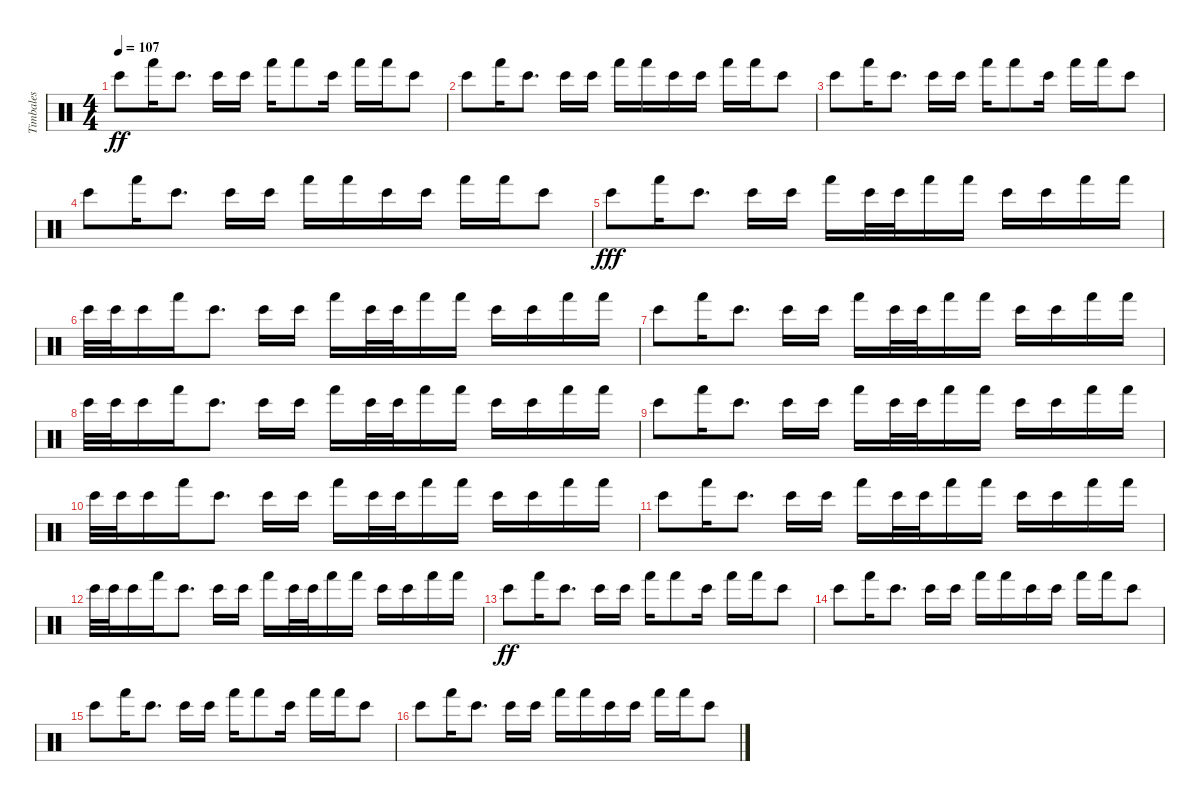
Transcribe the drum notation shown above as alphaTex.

\track ("Timbales" "Timbales") {instrument percussion}
\staff {score}
\articulation defaults
\ts (4 4)
\tempo 107
\clef neutral
\ks c "Bongo High (hit)".8{dy ff} "Hand (hit)".16 "Bongo High (hit)".8{d} "Bongo High (hit)".16 "Bongo High (hit)".16 "Hand (hit)".16 "Hand (hit)".8 "Bongo High (hit)".16 "Hand (hit)".16 "Hand (hit)".16 "Bongo High (hit)".8
|
"Bongo High (hit)".8 "Hand (hit)".16 "Bongo High (hit)".8{d} "Bongo High (hit)".16 "Bongo High (hit)".16 "Hand (hit)".16 "Hand (hit)".16 "Bongo High (hit)".16 "Bongo High (hit)".16 "Hand (hit)".16 "Hand (hit)".16 "Bongo High (hit)".8 |
"Bongo High (hit)".8 "Hand (hit)".16 "Bongo High (hit)".8{d} "Bongo High (hit)".16 "Bongo High (hit)".16 "Hand (hit)".16 "Hand (hit)".8 "Bongo High (hit)".16 "Hand (hit)".16 "Hand (hit)".16 "Bongo High (hit)".8 |
"Bongo High (hit)".8 "Hand (hit)".16 "Bongo High (hit)".8{d} "Bongo High (hit)".16 "Bongo High (hit)".16 "Hand (hit)".16 "Hand (hit)".16 "Bongo High (hit)".16 "Bongo High (hit)".16 "Hand (hit)".16 "Hand (hit)".16 "Bongo High (hit)".8 |
"Bongo High (hit)".8{dy fff} "Hand (hit)".16 "Bongo High (hit)".8{d} "Bongo High (hit)".16 "Bongo High (hit)".16 "Hand (hit)".16 "Bongo High (hit)".32 "Bongo High (hit)".32 "Hand (hit)".16 "Hand (hit)".16 "Bongo High (hit)".16 "Bongo High (hit)".16 "Hand (hit)".16 "Hand (hit)".16 |
"Bongo High (hit)".32 "Bongo High (hit)".32 "Bongo High (hit)".16 "Hand (hit)".16 "Bongo High (hit)".8{d} "Bongo High (hit)".16 "Bongo High (hit)".16 "Hand (hit)".16 "Bongo High (hit)".32 "Bongo High (hit)".32 "Hand (hit)".16 "Hand (hit)".16 "Bongo High (hit)".16 "Bongo High (hit)".16 "Hand (hit)".16 "Hand (hit)".16 |
"Bongo High (hit)".8 "Hand (hit)".16 "Bongo High (hit)".8{d} "Bongo High (hit)".16 "Bongo High (hit)".16 "Hand (hit)".16 "Bongo High (hit)".32 "Bongo High (hit)".32 "Hand (hit)".16 "Hand (hit)".16 "Bongo High (hit)".16 "Bongo High (hit)".16 "Hand (hit)".16 "Hand (hit)".16 |
"Bongo High (hit)".32 "Bongo High (hit)".32 "Bongo High (hit)".16 "Hand (hit)".16 "Bongo High (hit)".8{d} "Bongo High (hit)".16 "Bongo High (hit)".16 "Hand (hit)".16 "Bongo High (hit)".32 "Bongo High (hit)".32 "Hand (hit)".16 "Hand (hit)".16 "Bongo High (hit)".16 "Bongo High (hit)".16 "Hand (hit)".16 "Hand (hit)".16 |
"Bongo High (hit)".8 "Hand (hit)".16 "Bongo High (hit)".8{d} "Bongo High (hit)".16 "Bongo High (hit)".16 "Hand (hit)".16 "Bongo High (hit)".32 "Bongo High (hit)".32 "Hand (hit)".16 "Hand (hit)".16 "Bongo High (hit)".16 "Bongo High (hit)".16 "Hand (hit)".16 "Hand (hit)".16 |
"Bongo High (hit)".32 "Bongo High (hit)".32 "Bongo High (hit)".16 "Hand (hit)".16 "Bongo High (hit)".8{d} "Bongo High (hit)".16 "Bongo High (hit)".16 "Hand (hit)".16 "Bongo High (hit)".32 "Bongo High (hit)".32 "Hand (hit)".16 "Hand (hit)".16 "Bongo High (hit)".16 "Bongo High (hit)".16 "Hand (hit)".16 "Hand (hit)".16 |
"Bongo High (hit)".8 "Hand (hit)".16 "Bongo High (hit)".8{d} "Bongo High (hit)".16 "Bongo High (hit)".16 "Hand (hit)".16 "Bongo High (hit)".32 "Bongo High (hit)".32 "Hand (hit)".16 "Hand (hit)".16 "Bongo High (hit)".16 "Bongo High (hit)".16 "Hand (hit)".16 "Hand (hit)".16 |
"Bongo High (hit)".32 "Bongo High (hit)".32 "Bongo High (hit)".16 "Hand (hit)".16 "Bongo High (hit)".8{d} "Bongo High (hit)".16 "Bongo High (hit)".16 "Hand (hit)".16 "Bongo High (hit)".32 "Bongo High (hit)".32 "Hand (hit)".16 "Hand (hit)".16 "Bongo High (hit)".16 "Bongo High (hit)".16 "Hand (hit)".16 "Hand (hit)".16 |
"Bongo High (hit)".8{dy ff} "Hand (hit)".16 "Bongo High (hit)".8{d} "Bongo High (hit)".16 "Bongo High (hit)".16 "Hand (hit)".16 "Hand (hit)".8 "Bongo High (hit)".16 "Hand (hit)".16 "Hand (hit)".16 "Bongo High (hit)".8 |
"Bongo High (hit)".8 "Hand (hit)".16 "Bongo High (hit)".8{d} "Bongo High (hit)".16 "Bongo High (hit)".16 "Hand (hit)".16 "Hand (hit)".16 "Bongo High (hit)".16 "Bongo High (hit)".16 "Hand (hit)".16 "Hand (hit)".16 "Bongo High (hit)".8 |
"Bongo High (hit)".8 "Hand (hit)".16 "Bongo High (hit)".8{d} "Bongo High (hit)".16 "Bongo High (hit)".16 "Hand (hit)".16 "Hand (hit)".8 "Bongo High (hit)".16 "Hand (hit)".16 "Hand (hit)".16 "Bongo High (hit)".8 |
"Bongo High (hit)".8 "Hand (hit)".16 "Bongo High (hit)".8{d} "Bongo High (hit)".16 "Bongo High (hit)".16 "Hand (hit)".16 "Hand (hit)".16 "Bongo High (hit)".16 "Bongo High (hit)".16 "Hand (hit)".16 "Hand (hit)".16 "Bongo High (hit)".8
